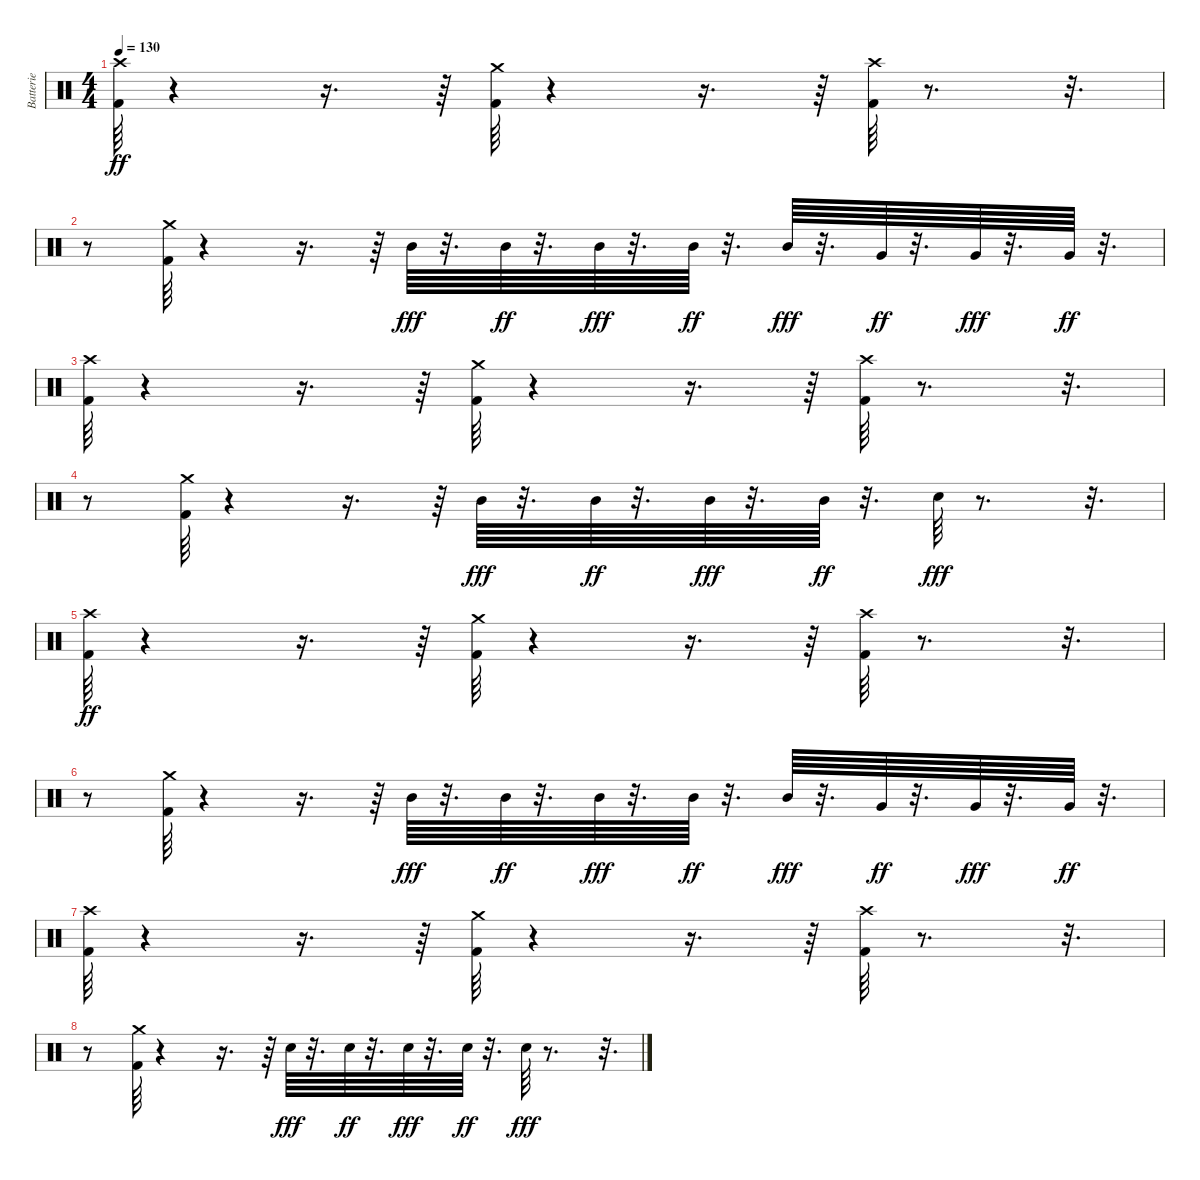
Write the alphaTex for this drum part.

\track ("Batterie" "Batterie") {instrument percussion}
\staff {score}
\articulation defaults
\ts (4 4)
\tempo 130
\clef neutral
\ks c
("Kick (hit) 2" "Crash high (hit)").64{dy ff} r.4 r.16{d} r.64 ("Kick (hit) 2" "Crash medium (hit)").64 r.4 r.16{d} r.64 ("Kick (hit) 2" "Crash high (hit)").64 r.8{d} r.32{d} |
r.8 ("Kick (hit) 2" "Crash medium (hit)").64 r.4 r.16{d} r.64 "Mid Tom (hit)".64{dy fff} r.32{d} "Mid Tom (hit)".64{dy ff} r.32{d} "Mid Tom (hit)".64{dy fff} r.32{d} "Mid Tom (hit)".64{dy ff} r.32{d} "Mid Tom (hit)".64{dy fff} r.32{d} "Very Low Tom (hit)".64{dy ff} r.32{d} "Very Low Tom (hit)".64{dy fff} r.32{d} "Very Low Tom (hit)".64{dy ff} r.32{d} |
("Kick (hit) 2" "Crash high (hit)").64 r.4 r.16{d} r.64 ("Kick (hit) 2" "Crash medium (hit)").64 r.4 r.16{d} r.64 ("Kick (hit) 2" "Crash high (hit)").64 r.8{d} r.32{d} |
r.8 ("Kick (hit) 2" "Crash medium (hit)").64 r.4 r.16{d} r.64 "Mid Tom (hit)".64{dy fff} r.32{d} "Mid Tom (hit)".64{dy ff} r.32{d} "Mid Tom (hit)".64{dy fff} r.32{d} "Mid Tom (hit)".64{dy ff} r.32{d} "Snare (hit) 2".64{dy fff} r.8{d} r.32{d} |
("Kick (hit) 2" "Crash high (hit)").64{dy ff} r.4 r.16{d} r.64 ("Kick (hit) 2" "Crash medium (hit)").64 r.4 r.16{d} r.64 ("Kick (hit) 2" "Crash high (hit)").64 r.8{d} r.32{d} |
r.8 ("Kick (hit) 2" "Crash medium (hit)").64 r.4 r.16{d} r.64 "Mid Tom (hit)".64{dy fff} r.32{d} "Mid Tom (hit)".64{dy ff} r.32{d} "Mid Tom (hit)".64{dy fff} r.32{d} "Mid Tom (hit)".64{dy ff} r.32{d} "Mid Tom (hit)".64{dy fff} r.32{d} "Very Low Tom (hit)".64{dy ff} r.32{d} "Very Low Tom (hit)".64{dy fff} r.32{d} "Very Low Tom (hit)".64{dy ff} r.32{d} |
("Kick (hit) 2" "Crash high (hit)").64 r.4 r.16{d} r.64 ("Kick (hit) 2" "Crash medium (hit)").64 r.4 r.16{d} r.64 ("Kick (hit) 2" "Crash high (hit)").64 r.8{d} r.32{d} |
r.8 ("Kick (hit) 2" "Crash medium (hit)").64 r.4 r.16{d} r.64 "Snare (hit) 2".64{dy fff} r.32{d} "Snare (hit) 2".64{dy ff} r.32{d} "Snare (hit) 2".64{dy fff} r.32{d} "Snare (hit) 2".64{dy ff} r.32{d} "Snare (hit) 2".64{dy fff} r.8{d} r.32{d}
